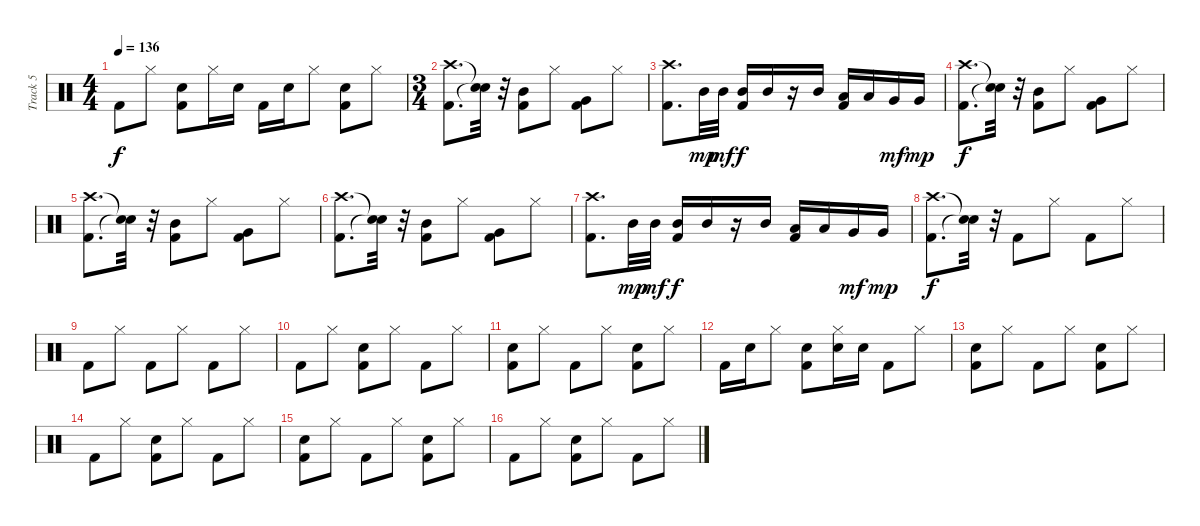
\track ("Track 5" "Track 5") {instrument percussion}
\staff {score}
\articulation defaults
\ts (4 4)
\tempo 136
\clef neutral
\ks c "Kick (hit) 2".8{dy f} "Hi-Hat (closed)".8
("Kick (hit) 2" "Hand Clap (hit)").8 "Hi-Hat (closed)".16 "Hand Clap (hit)".16 "Kick (hit) 2".16 "Hand Clap (hit)".16 "Hi-Hat (closed)".8 ("Kick (hit) 2" "Hand Clap (hit)").8 "Hi-Hat (closed)".8 |
\ts (3 4)
("Kick (hit) 2" "Crash high (hit)").8{d} ("Snare (hit)"{t} "Snare (hit)"{t}).32 r.32 ("Kick (hit) 2" "Mid Tom (hit)").8 "Hi-Hat (closed)".8 ("Kick (hit) 2" "Very Low Tom (hit)").8 "Hi-Hat (closed)".8 |
("Kick (hit) 2" "Crash high (hit)").8{d} "Mid Tom (hit)".32{dy mp} "Mid Tom (hit)".32{dy mf} ("Kick (hit) 2" "Mid Tom (hit)").16{dy f} "Mid Tom (hit)".16 r.16 "Mid Tom (hit)".16 ("Kick (hit) 2" "Low Tom (hit)").16 "Low Tom (hit)".16 "Very Low Tom (hit)".16{dy mf} "Very Low Tom (hit)".16{dy mp} |
("Kick (hit) 2" "Crash high (hit)").8{d dy f} ("Snare (hit)"{t} "Snare (hit)"{t}).32 r.32 ("Kick (hit) 2" "Mid Tom (hit)").8 "Hi-Hat (closed)".8 ("Kick (hit) 2" "Very Low Tom (hit)").8 "Hi-Hat (closed)".8 |
("Kick (hit) 2" "Crash high (hit)").8{d} ("Snare (hit)"{t} "Snare (hit)"{t}).32 r.32 ("Kick (hit) 2" "Mid Tom (hit)").8 "Hi-Hat (closed)".8 ("Kick (hit) 2" "Very Low Tom (hit)").8 "Hi-Hat (closed)".8 |
("Kick (hit) 2" "Crash high (hit)").8{d} ("Snare (hit)"{t} "Snare (hit)"{t}).32 r.32 ("Kick (hit) 2" "Mid Tom (hit)").8 "Hi-Hat (closed)".8 ("Kick (hit) 2" "Very Low Tom (hit)").8 "Hi-Hat (closed)".8 |
("Kick (hit) 2" "Crash high (hit)").8{d} "Mid Tom (hit)".32{dy mp} "Mid Tom (hit)".32{dy mf} ("Kick (hit) 2" "Mid Tom (hit)").16{dy f} "Mid Tom (hit)".16 r.16 "Mid Tom (hit)".16 ("Kick (hit) 2" "Low Tom (hit)").16 "Low Tom (hit)".16 "Very Low Tom (hit)".16{dy mf} "Very Low Tom (hit)".16{dy mp} |
("Kick (hit) 2" "Crash high (hit)").8{d dy f} ("Snare (hit)"{t} "Snare (hit)"{t}).32 r.32 "Kick (hit) 2".8 "Hi-Hat (closed)".8 "Kick (hit) 2".8 "Hi-Hat (closed)".8 |
"Kick (hit) 2".8 "Hi-Hat (closed)".8 "Kick (hit) 2".8 "Hi-Hat (closed)".8 "Kick (hit) 2".8 "Hi-Hat (closed)".8 |
"Kick (hit) 2".8 "Hi-Hat (closed)".8 ("Kick (hit) 2" "Hand Clap (hit)").8 "Hi-Hat (closed)".8 "Kick (hit) 2".8 "Hi-Hat (closed)".8 |
("Kick (hit) 2" "Hand Clap (hit)").8 "Hi-Hat (closed)".8 "Kick (hit) 2".8 "Hi-Hat (closed)".8 ("Kick (hit) 2" "Hand Clap (hit)").8 "Hi-Hat (closed)".8 |
"Kick (hit) 2".16 "Hand Clap (hit)".16 "Hi-Hat (closed)".8 ("Kick (hit) 2" "Hand Clap (hit)").8 ("Hand Clap (hit)" "Hi-Hat (closed)").16 "Hand Clap (hit)".16 "Kick (hit) 2".8 "Hi-Hat (closed)".8 |
("Kick (hit) 2" "Hand Clap (hit)").8 "Hi-Hat (closed)".8 "Kick (hit) 2".8 "Hi-Hat (closed)".8 ("Kick (hit) 2" "Hand Clap (hit)").8 "Hi-Hat (closed)".8 |
"Kick (hit) 2".8 "Hi-Hat (closed)".8 ("Kick (hit) 2" "Hand Clap (hit)").8 "Hi-Hat (closed)".8 "Kick (hit) 2".8 "Hi-Hat (closed)".8 |
("Kick (hit) 2" "Hand Clap (hit)").8 "Hi-Hat (closed)".8 "Kick (hit) 2".8 "Hi-Hat (closed)".8 ("Kick (hit) 2" "Hand Clap (hit)").8 "Hi-Hat (closed)".8 |
"Kick (hit) 2".8 "Hi-Hat (closed)".8 ("Kick (hit) 2" "Hand Clap (hit)").8 "Hi-Hat (closed)".8 "Kick (hit) 2".8 "Hi-Hat (closed)".8
